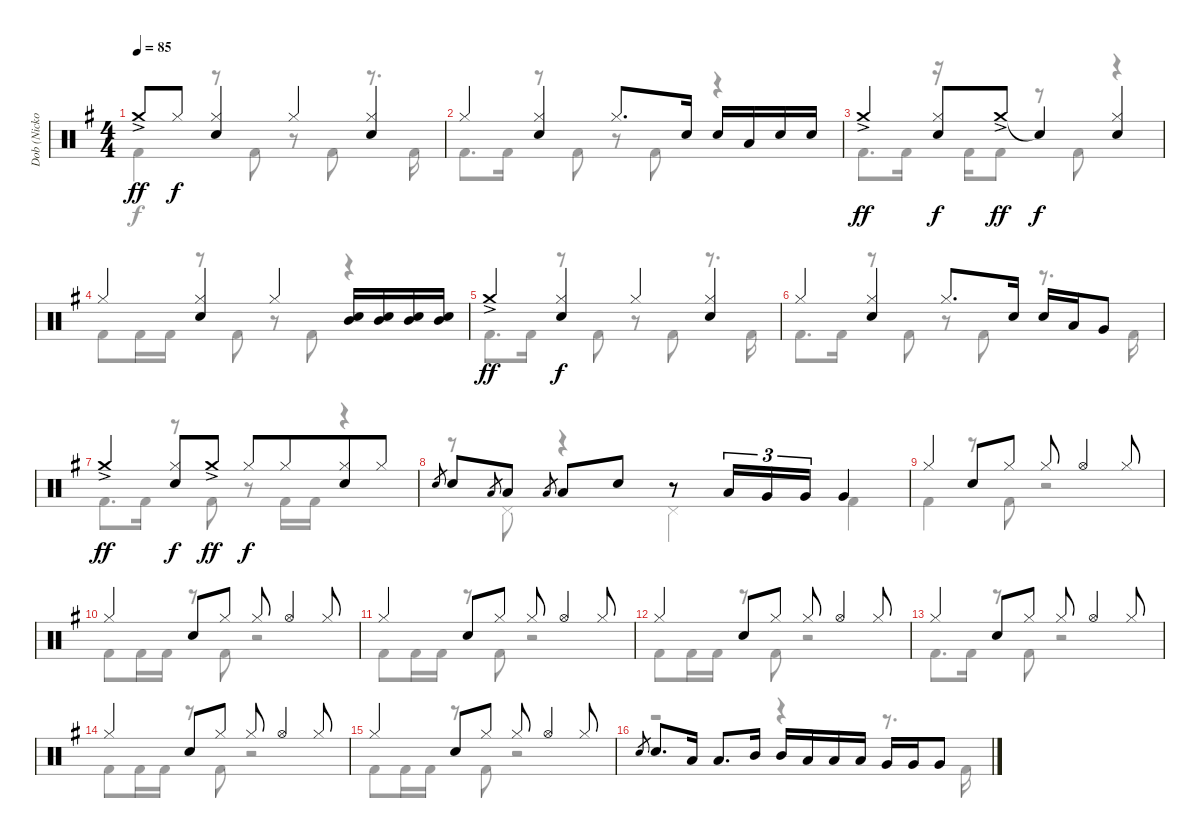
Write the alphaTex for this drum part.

\track ("Dob (Nicko McBrain)" "Dob (Nicko") {instrument percussion}
\staff {score}
\articulation defaults
\voice
\ts (4 4)
\tempo 85
\clef neutral
\ks g "Crash medium (hit)"{ac}.8{dy ff} "Hi-Hat (closed)".8{dy f}
("Hi-Hat (closed)" "Electric Snare (hit)").4 "Hi-Hat (closed)".4 ("Hi-Hat (closed)" "Electric Snare (hit)").4 |
"Hi-Hat (closed)".4 ("Hi-Hat (closed)" "Electric Snare (hit)").4 "Hi-Hat (closed)".8{d} "Electric Snare (hit)".16 "Electric Snare (hit)".16 "Low Tom (hit)".16 "Electric Snare (hit)".16 "Electric Snare (hit)".16 |
"Crash medium (hit)"{ac}.4{dy ff} ("Hi-Hat (closed)" "Electric Snare (hit)").8{dy f} "Crash medium (hit)"{ac}.8{dy ff} "Snare (hit)"{t}.4{dy f} ("Hi-Hat (closed)" "Electric Snare (hit)").4 |
"Hi-Hat (closed)".4 ("Hi-Hat (closed)" "Electric Snare (hit)").4 "Hi-Hat (closed)".4 ("Mid Tom (hit)" "Electric Snare (hit)").16 ("Mid Tom (hit)" "Electric Snare (hit)").16 ("Mid Tom (hit)" "Electric Snare (hit)").16 ("Mid Tom (hit)" "Electric Snare (hit)").16 |
"Crash medium (hit)"{ac}.4{dy ff} ("Hi-Hat (closed)" "Electric Snare (hit)").4{dy f} "Hi-Hat (closed)".4 ("Hi-Hat (closed)" "Electric Snare (hit)").4 |
"Hi-Hat (closed)".4 ("Hi-Hat (closed)" "Electric Snare (hit)").4 "Hi-Hat (closed)".8{d} "Electric Snare (hit)".16 "Electric Snare (hit)".16 "Low Tom (hit)".16 "Very Low Tom (hit)".8 |
"Crash medium (hit)"{ac}.4{dy ff} ("Hi-Hat (closed)" "Electric Snare (hit)").8{dy f} "Crash medium (hit)"{ac}.8{dy ff} "Hi-Hat (closed)".8{dy f} "Hi-Hat (closed)".8{beam merge} ("Hi-Hat (closed)" "Electric Snare (hit)").8 "Hi-Hat (closed)".8 |
"Electric Snare (hit)".8{gr} "Electric Snare (hit)".8 "Low Tom (hit)".8{gr} "Low Tom (hit)".8 "Low Tom (hit)".8{gr beam merge} "Low Tom (hit)".8 "Electric Snare (hit)".8 r.8 "Low Floor Tom (hit)".16{tu (3 2)} "Very Low Tom (hit)".16{tu (3 2)} "Very Low Tom (hit)".16{tu (3 2)} "Very Low Tom (hit)".4 |
"Hi-Hat (closed)".4 "Electric Snare (hit)".8 "Hi-Hat (closed)".8 "Hi-Hat (closed)".8 "Hi-Hat (open)".4 "Hi-Hat (closed)".8 |
"Hi-Hat (closed)".4 "Electric Snare (hit)".8 "Hi-Hat (closed)".8 "Hi-Hat (closed)".8 "Hi-Hat (open)".4 "Hi-Hat (closed)".8 |
"Hi-Hat (closed)".4 "Electric Snare (hit)".8 "Hi-Hat (closed)".8 "Hi-Hat (closed)".8 "Hi-Hat (open)".4 "Hi-Hat (closed)".8 |
"Hi-Hat (closed)".4 "Electric Snare (hit)".8 "Hi-Hat (closed)".8 "Hi-Hat (closed)".8 "Hi-Hat (open)".4 "Hi-Hat (closed)".8 |
"Hi-Hat (closed)".4 "Electric Snare (hit)".8 "Hi-Hat (closed)".8 "Hi-Hat (closed)".8 "Hi-Hat (open)".4 "Hi-Hat (closed)".8 |
"Hi-Hat (closed)".4 "Electric Snare (hit)".8 "Hi-Hat (closed)".8 "Hi-Hat (closed)".8 "Hi-Hat (open)".4 "Hi-Hat (closed)".8 |
"Hi-Hat (closed)".4 "Electric Snare (hit)".8 "Hi-Hat (closed)".8 "Hi-Hat (closed)".8 "Hi-Hat (open)".4 "Hi-Hat (closed)".8 |
"Electric Snare (hit)".8{gr} "Electric Snare (hit)".8{d} "Low Tom (hit)".16 "Low Tom (hit)".8{d} "Mid Tom (hit)".16 "Mid Tom (hit)".16 "Low Tom (hit)".16 "Low Tom (hit)".16 "Low Tom (hit)".16 "Very Low Tom (hit)".16 "Very Low Tom (hit)".16 "Very Low Tom (hit)".8
\voice
\clef neutral
\ottava regular
\simile none
\ks g "Kick (hit) 2".4{dy f}
r.8 "Kick (hit) 2".8 r.8 "Kick (hit) 2".8 r.8{d} "Kick (hit) 2".16 |
"Kick (hit) 2".8{d} "Kick (hit) 2".16 r.8 "Kick (hit) 2".8 r.8 "Kick (hit) 2".8 r.4 |
"Kick (hit) 2".8{d} "Kick (hit) 2".16 r.16 "Kick (hit) 2".16 "Kick (hit) 2".8 r.8 "Kick (hit) 2".8 r.4 |
"Kick (hit) 2".8 "Kick (hit) 2".16 "Kick (hit) 2".16 r.8 "Kick (hit) 2".8 r.8 "Kick (hit) 2".8 r.4 |
"Kick (hit) 2".8{d} "Kick (hit) 2".16 r.8 "Kick (hit) 2".8 r.8 "Kick (hit) 2".8 r.8{d} "Kick (hit) 2".16 |
"Kick (hit) 2".8{d} "Kick (hit) 2".16 r.8 "Kick (hit) 2".8 r.8 "Kick (hit) 2".8 r.8{d} "Kick (hit) 2".16 |
"Kick (hit) 2".8{d} "Kick (hit) 2".16 r.8 "Kick (hit) 2".8 r.8 "Kick (hit) 2".16 "Kick (hit) 2".16 r.4 |
r.8 "Pedal Hi-Hat (hit)".8 r.4 "Pedal Hi-Hat (hit)".4 "Kick (hit) 2".4 |
"Kick (hit) 2".4 r.8 "Kick (hit) 2".8 r.2 |
"Kick (hit) 2".8 "Kick (hit) 2".16 "Kick (hit) 2".16 r.8 "Kick (hit) 2".8 r.2 |
"Kick (hit) 2".8 "Kick (hit) 2".16 "Kick (hit) 2".16 r.8 "Kick (hit) 2".8 r.2 |
"Kick (hit) 2".8 "Kick (hit) 2".16 "Kick (hit) 2".16 r.8 "Kick (hit) 2".8 r.2 |
"Kick (hit) 2".8{d} "Kick (hit) 2".16 r.8 "Kick (hit) 2".8 r.2 |
"Kick (hit) 2".8 "Kick (hit) 2".16 "Kick (hit) 2".16 r.8 "Kick (hit) 2".8 r.2 |
"Kick (hit) 2".8 "Kick (hit) 2".16 "Kick (hit) 2".16 r.8 "Kick (hit) 2".8 r.2 |
r.2 r.4 r.8{d} "Kick (hit) 2".16
